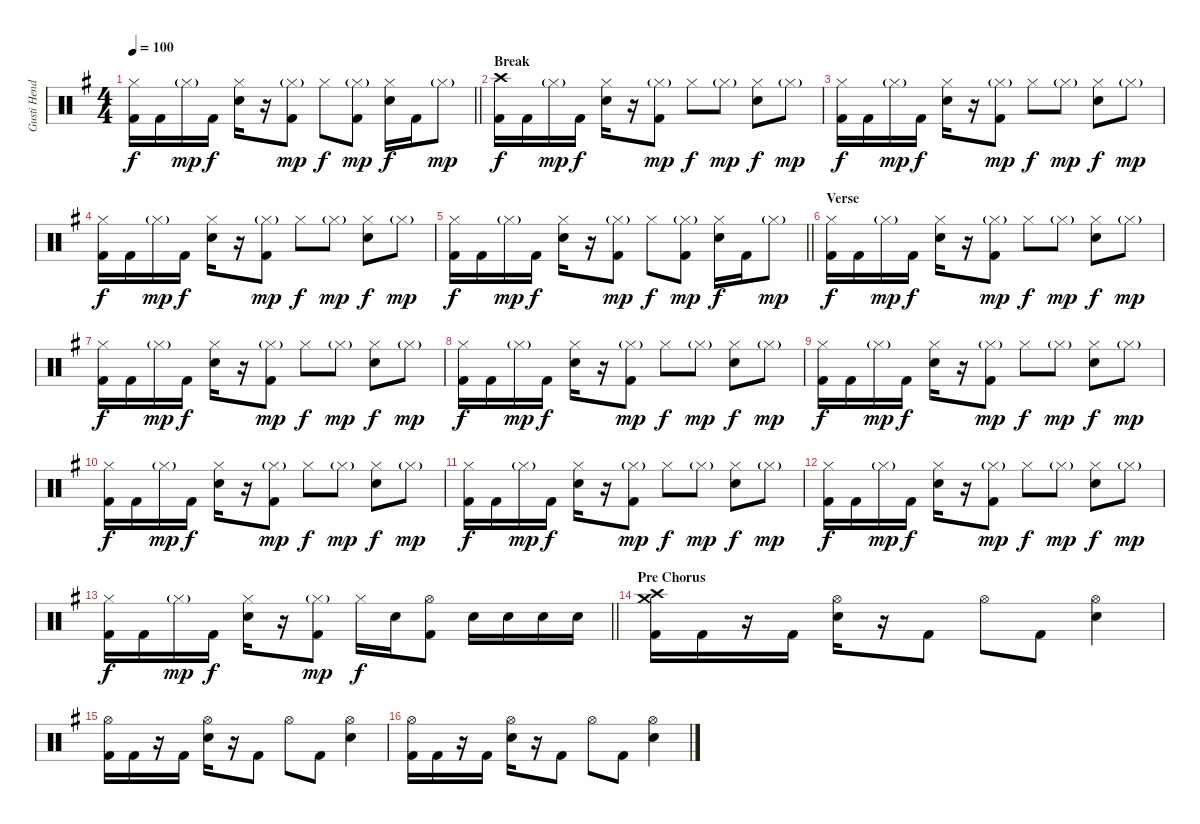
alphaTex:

\track ("Gusti Hendy" "Gusti Hend") {instrument percussion}
\staff {score}
\articulation defaults
\ts (4 4)
\tempo 100
\clef neutral
\barLineRight lightlight
\ks g
("Hi-Hat (closed)" "Kick (hit) 2").16{dy f} "Kick (hit) 2".16 "Hi-Hat (closed)"{g}.16{dy mp} "Kick (hit) 2".16{dy f} ("Hi-Hat (closed)" "Electric Snare (hit)").16 r.16 ("Hi-Hat (closed)"{g} "Kick (hit) 2").8{dy mp} "Hi-Hat (closed)".8{dy f} ("Hi-Hat (closed)"{g} "Kick (hit) 2").8{dy mp} ("Hi-Hat (closed)" "Electric Snare (hit)").16{dy f} "Kick (hit) 2".16 "Hi-Hat (closed)"{g}.8{dy mp} |
\section ("" "Break")
("Crash high (hit)" "Kick (hit) 2").16{dy f} "Kick (hit) 2".16 "Hi-Hat (closed)"{g}.16{dy mp} "Kick (hit) 2".16{dy f} ("Hi-Hat (closed)" "Electric Snare (hit)").16 r.16 ("Hi-Hat (closed)"{g} "Kick (hit) 2").8{dy mp} "Hi-Hat (closed)".8{dy f} "Hi-Hat (closed)"{g}.8{dy mp} ("Hi-Hat (closed)" "Electric Snare (hit)").8{dy f} "Hi-Hat (closed)"{g}.8{dy mp} |
("Hi-Hat (closed)" "Kick (hit) 2").16{dy f} "Kick (hit) 2".16 "Hi-Hat (closed)"{g}.16{dy mp} "Kick (hit) 2".16{dy f} ("Hi-Hat (closed)" "Electric Snare (hit)").16 r.16 ("Hi-Hat (closed)"{g} "Kick (hit) 2").8{dy mp} "Hi-Hat (closed)".8{dy f} "Hi-Hat (closed)"{g}.8{dy mp} ("Hi-Hat (closed)" "Electric Snare (hit)").8{dy f} "Hi-Hat (closed)"{g}.8{dy mp} |
("Hi-Hat (closed)" "Kick (hit) 2").16{dy f} "Kick (hit) 2".16 "Hi-Hat (closed)"{g}.16{dy mp} "Kick (hit) 2".16{dy f} ("Hi-Hat (closed)" "Electric Snare (hit)").16 r.16 ("Hi-Hat (closed)"{g} "Kick (hit) 2").8{dy mp} "Hi-Hat (closed)".8{dy f} "Hi-Hat (closed)"{g}.8{dy mp} ("Hi-Hat (closed)" "Electric Snare (hit)").8{dy f} "Hi-Hat (closed)"{g}.8{dy mp} |
\barLineRight lightlight
("Hi-Hat (closed)" "Kick (hit) 2").16{dy f} "Kick (hit) 2".16 "Hi-Hat (closed)"{g}.16{dy mp} "Kick (hit) 2".16{dy f} ("Hi-Hat (closed)" "Electric Snare (hit)").16 r.16 ("Hi-Hat (closed)"{g} "Kick (hit) 2").8{dy mp} "Hi-Hat (closed)".8{dy f} ("Hi-Hat (closed)"{g} "Kick (hit) 2").8{dy mp} ("Hi-Hat (closed)" "Electric Snare (hit)").16{dy f} "Kick (hit) 2".16 "Hi-Hat (closed)"{g}.8{dy mp} |
\section ("" "Verse")
("Hi-Hat (closed)" "Kick (hit) 2").16{dy f} "Kick (hit) 2".16 "Hi-Hat (closed)"{g}.16{dy mp} "Kick (hit) 2".16{dy f} ("Hi-Hat (closed)" "Electric Snare (hit)").16 r.16 ("Hi-Hat (closed)"{g} "Kick (hit) 2").8{dy mp} "Hi-Hat (closed)".8{dy f} "Hi-Hat (closed)"{g}.8{dy mp} ("Hi-Hat (closed)" "Electric Snare (hit)").8{dy f} "Hi-Hat (closed)"{g}.8{dy mp} |
("Hi-Hat (closed)" "Kick (hit) 2").16{dy f} "Kick (hit) 2".16 "Hi-Hat (closed)"{g}.16{dy mp} "Kick (hit) 2".16{dy f} ("Hi-Hat (closed)" "Electric Snare (hit)").16 r.16 ("Hi-Hat (closed)"{g} "Kick (hit) 2").8{dy mp} "Hi-Hat (closed)".8{dy f} "Hi-Hat (closed)"{g}.8{dy mp} ("Hi-Hat (closed)" "Electric Snare (hit)").8{dy f} "Hi-Hat (closed)"{g}.8{dy mp} |
("Hi-Hat (closed)" "Kick (hit) 2").16{dy f} "Kick (hit) 2".16 "Hi-Hat (closed)"{g}.16{dy mp} "Kick (hit) 2".16{dy f} ("Hi-Hat (closed)" "Electric Snare (hit)").16 r.16 ("Hi-Hat (closed)"{g} "Kick (hit) 2").8{dy mp} "Hi-Hat (closed)".8{dy f} "Hi-Hat (closed)"{g}.8{dy mp} ("Hi-Hat (closed)" "Electric Snare (hit)").8{dy f} "Hi-Hat (closed)"{g}.8{dy mp} |
("Hi-Hat (closed)" "Kick (hit) 2").16{dy f} "Kick (hit) 2".16 "Hi-Hat (closed)"{g}.16{dy mp} "Kick (hit) 2".16{dy f} ("Hi-Hat (closed)" "Electric Snare (hit)").16 r.16 ("Hi-Hat (closed)"{g} "Kick (hit) 2").8{dy mp} "Hi-Hat (closed)".8{dy f} "Hi-Hat (closed)"{g}.8{dy mp} ("Hi-Hat (closed)" "Electric Snare (hit)").8{dy f} "Hi-Hat (closed)"{g}.8{dy mp} |
("Hi-Hat (closed)" "Kick (hit) 2").16{dy f} "Kick (hit) 2".16 "Hi-Hat (closed)"{g}.16{dy mp} "Kick (hit) 2".16{dy f} ("Hi-Hat (closed)" "Electric Snare (hit)").16 r.16 ("Hi-Hat (closed)"{g} "Kick (hit) 2").8{dy mp} "Hi-Hat (closed)".8{dy f} "Hi-Hat (closed)"{g}.8{dy mp} ("Hi-Hat (closed)" "Electric Snare (hit)").8{dy f} "Hi-Hat (closed)"{g}.8{dy mp} |
("Hi-Hat (closed)" "Kick (hit) 2").16{dy f} "Kick (hit) 2".16 "Hi-Hat (closed)"{g}.16{dy mp} "Kick (hit) 2".16{dy f} ("Hi-Hat (closed)" "Electric Snare (hit)").16 r.16 ("Hi-Hat (closed)"{g} "Kick (hit) 2").8{dy mp} "Hi-Hat (closed)".8{dy f} "Hi-Hat (closed)"{g}.8{dy mp} ("Hi-Hat (closed)" "Electric Snare (hit)").8{dy f} "Hi-Hat (closed)"{g}.8{dy mp} |
("Hi-Hat (closed)" "Kick (hit) 2").16{dy f} "Kick (hit) 2".16 "Hi-Hat (closed)"{g}.16{dy mp} "Kick (hit) 2".16{dy f} ("Hi-Hat (closed)" "Electric Snare (hit)").16 r.16 ("Hi-Hat (closed)"{g} "Kick (hit) 2").8{dy mp} "Hi-Hat (closed)".8{dy f} "Hi-Hat (closed)"{g}.8{dy mp} ("Hi-Hat (closed)" "Electric Snare (hit)").8{dy f} "Hi-Hat (closed)"{g}.8{dy mp} |
\barLineRight lightlight
("Hi-Hat (closed)" "Kick (hit) 2").16{dy f} "Kick (hit) 2".16 "Hi-Hat (closed)"{g}.16{dy mp} "Kick (hit) 2".16{dy f} ("Hi-Hat (closed)" "Electric Snare (hit)").16 r.16 ("Hi-Hat (closed)"{g} "Kick (hit) 2").8{dy mp} "Hi-Hat (closed)".16{dy f} "Electric Snare (hit)".16 ("Hi-Hat (open)" "Kick (hit) 2").8 "Electric Snare (hit)".16 "Electric Snare (hit)".16 "Electric Snare (hit)".16 "Electric Snare (hit)".16 |
\section ("" "Pre Chorus")
("Crash high (hit)" "Crash medium (hit)" "Kick (hit) 2").16 "Kick (hit) 2".16 r.16 "Kick (hit) 2".16 ("Hi-Hat (open)" "Electric Snare (hit)").16 r.16 "Kick (hit) 2".8 "Hi-Hat (open)".8 "Kick (hit) 2".8 ("Hi-Hat (open)" "Electric Snare (hit)").4 |
("Hi-Hat (open)" "Kick (hit) 2").16 "Kick (hit) 2".16 r.16 "Kick (hit) 2".16 ("Hi-Hat (open)" "Electric Snare (hit)").16 r.16 "Kick (hit) 2".8 "Hi-Hat (open)".8 "Kick (hit) 2".8 ("Hi-Hat (open)" "Electric Snare (hit)").4 |
("Hi-Hat (open)" "Kick (hit) 2").16 "Kick (hit) 2".16 r.16 "Kick (hit) 2".16 ("Hi-Hat (open)" "Electric Snare (hit)").16 r.16 "Kick (hit) 2".8 "Hi-Hat (open)".8 "Kick (hit) 2".8 ("Hi-Hat (open)" "Electric Snare (hit)").4
